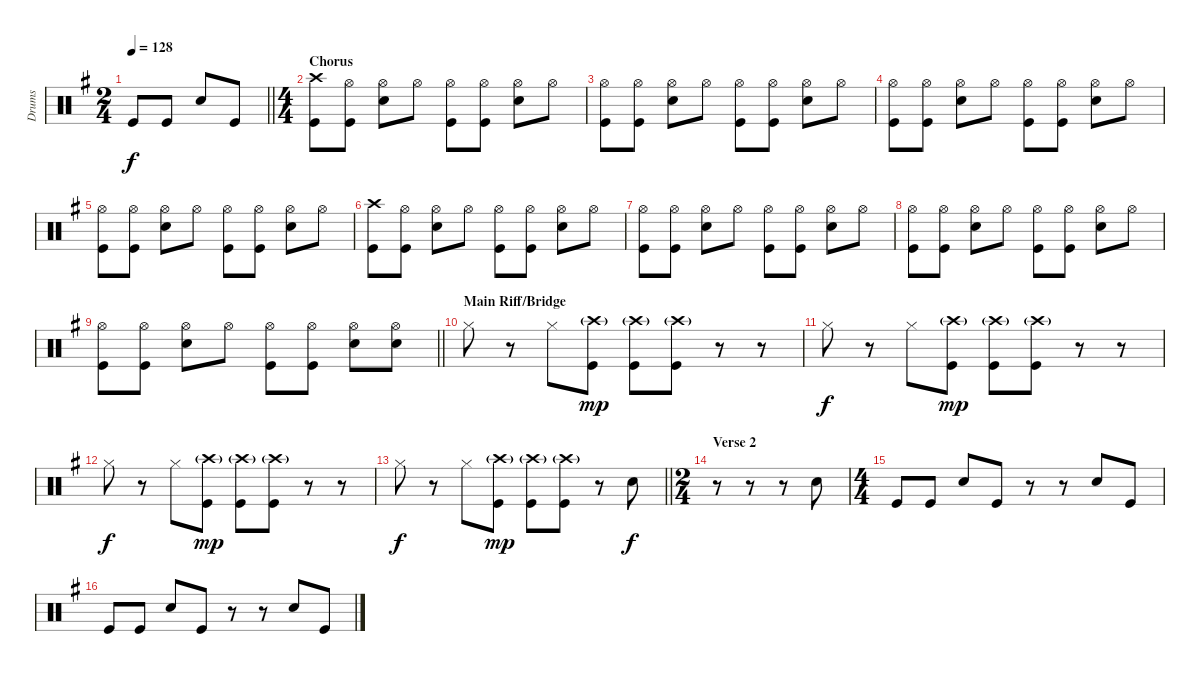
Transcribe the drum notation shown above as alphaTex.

\track ("Drums" "Drums") {instrument percussion}
\staff {score}
\articulation defaults
\ts (2 4)
\tempo 128
\clef neutral
\barLineRight lightlight
\ks g "Kick (hit)".8{dy f} "Kick (hit)".8 "Electric Snare (hit)".8 "Kick (hit)".8
|
\ts (4 4)
\section ("" "Chorus")
("Crash high (hit)" "Kick (hit)").8 ("Hi-Hat (open)" "Kick (hit)").8 ("Hi-Hat (open)" "Electric Snare (hit)").8 "Hi-Hat (open)".8 ("Hi-Hat (open)" "Kick (hit)").8 ("Hi-Hat (open)" "Kick (hit)").8 ("Hi-Hat (open)" "Electric Snare (hit)").8 "Hi-Hat (open)".8 |
("Hi-Hat (open)" "Kick (hit)").8 ("Hi-Hat (open)" "Kick (hit)").8 ("Hi-Hat (open)" "Electric Snare (hit)").8 "Hi-Hat (open)".8 ("Hi-Hat (open)" "Kick (hit)").8 ("Hi-Hat (open)" "Kick (hit)").8 ("Hi-Hat (open)" "Electric Snare (hit)").8 "Hi-Hat (open)".8 |
("Hi-Hat (open)" "Kick (hit)").8 ("Hi-Hat (open)" "Kick (hit)").8 ("Hi-Hat (open)" "Electric Snare (hit)").8 "Hi-Hat (open)".8 ("Hi-Hat (open)" "Kick (hit)").8 ("Hi-Hat (open)" "Kick (hit)").8 ("Hi-Hat (open)" "Electric Snare (hit)").8 "Hi-Hat (open)".8 |
("Hi-Hat (open)" "Kick (hit)").8 ("Hi-Hat (open)" "Kick (hit)").8 ("Hi-Hat (open)" "Electric Snare (hit)").8 "Hi-Hat (open)".8 ("Hi-Hat (open)" "Kick (hit)").8 ("Hi-Hat (open)" "Kick (hit)").8 ("Hi-Hat (open)" "Electric Snare (hit)").8 "Hi-Hat (open)".8 |
("Crash high (hit)" "Kick (hit)").8 ("Hi-Hat (open)" "Kick (hit)").8 ("Hi-Hat (open)" "Electric Snare (hit)").8 "Hi-Hat (open)".8 ("Hi-Hat (open)" "Kick (hit)").8 ("Hi-Hat (open)" "Kick (hit)").8 ("Hi-Hat (open)" "Electric Snare (hit)").8 "Hi-Hat (open)".8 |
("Hi-Hat (open)" "Kick (hit)").8 ("Hi-Hat (open)" "Kick (hit)").8 ("Hi-Hat (open)" "Electric Snare (hit)").8 "Hi-Hat (open)".8 ("Hi-Hat (open)" "Kick (hit)").8 ("Hi-Hat (open)" "Kick (hit)").8 ("Hi-Hat (open)" "Electric Snare (hit)").8 "Hi-Hat (open)".8 |
("Hi-Hat (open)" "Kick (hit)").8 ("Hi-Hat (open)" "Kick (hit)").8 ("Hi-Hat (open)" "Electric Snare (hit)").8 "Hi-Hat (open)".8 ("Hi-Hat (open)" "Kick (hit)").8 ("Hi-Hat (open)" "Kick (hit)").8 ("Hi-Hat (open)" "Electric Snare (hit)").8 "Hi-Hat (open)".8 |
\barLineRight lightlight
("Hi-Hat (open)" "Kick (hit)").8 ("Hi-Hat (open)" "Kick (hit)").8 ("Hi-Hat (open)" "Electric Snare (hit)").8 "Hi-Hat (open)".8 ("Hi-Hat (open)" "Kick (hit)").8 ("Hi-Hat (open)" "Kick (hit)").8 ("Hi-Hat (open)" "Electric Snare (hit)").8 ("Hi-Hat (open)" "Electric Snare (hit)").8 |
\section ("" "Main Riff/Bridge")
"Hi-Hat (closed)".8 r.8 "Hi-Hat (closed)".8 ("Crash high (hit)"{g} "Kick (hit)").8{dy mp} ("Crash high (hit)"{g} "Kick (hit)").8 ("Crash high (hit)"{g} "Kick (hit)").8 r.8 r.8 |
"Hi-Hat (closed)".8{dy f} r.8 "Hi-Hat (closed)".8 ("Crash high (hit)"{g} "Kick (hit)").8{dy mp} ("Crash high (hit)"{g} "Kick (hit)").8 ("Crash high (hit)"{g} "Kick (hit)").8 r.8 r.8 |
"Hi-Hat (closed)".8{dy f} r.8 "Hi-Hat (closed)".8 ("Crash high (hit)"{g} "Kick (hit)").8{dy mp} ("Crash high (hit)"{g} "Kick (hit)").8 ("Crash high (hit)"{g} "Kick (hit)").8 r.8 r.8 |
\barLineRight lightlight "Hi-Hat (closed)".8{dy f}
r.8 "Hi-Hat (closed)".8 ("Crash high (hit)"{g} "Kick (hit)").8{dy mp} ("Crash high (hit)"{g} "Kick (hit)").8 ("Crash high (hit)"{g} "Kick (hit)").8 r.8 "Electric Snare (hit)".8{dy f} |
\ts (2 4)
\section ("" "Verse 2")
r.8 r.8 r.8 "Electric Snare (hit)".8 |
\ts (4 4)
"Kick (hit)".8 "Kick (hit)".8 "Electric Snare (hit)".8 "Kick (hit)".8 r.8 r.8 "Electric Snare (hit)".8 "Kick (hit)".8 |
"Kick (hit)".8 "Kick (hit)".8 "Electric Snare (hit)".8 "Kick (hit)".8 r.8 r.8 "Electric Snare (hit)".8 "Kick (hit)".8
